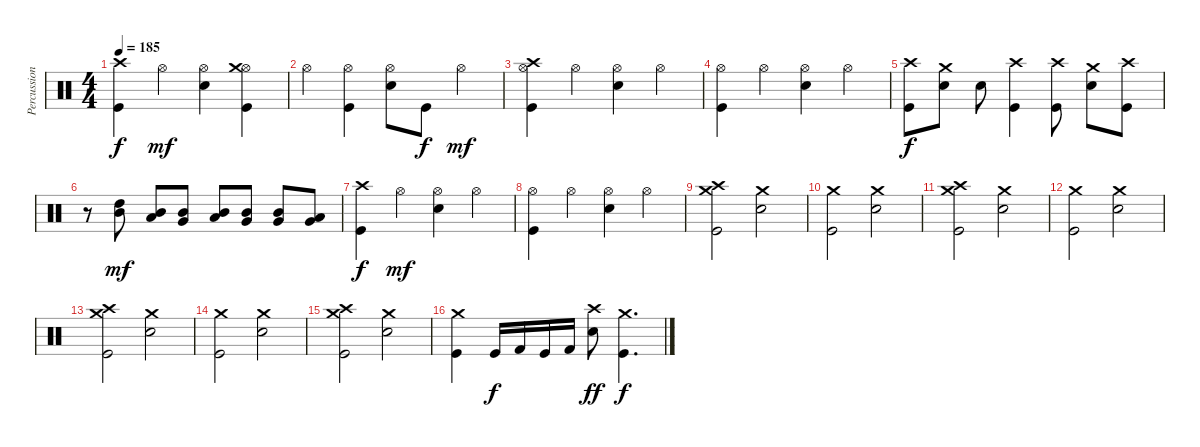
\track ("Percussions" "Percussion") {instrument percussion}
\staff {score}
\articulation defaults
\ts (4 4)
\tempo 185
\clef neutral
\ks c
("Kick (hit)" "Crash high (hit)").4{dy f} "Hi-Hat (open)".4{dy mf} ("Electric Snare (hit)" "Hi-Hat (open)").4 ("Kick (hit)" "Hi-Hat (open)" "Crash medium (hit)").4 |
"Hi-Hat (open)".4 ("Kick (hit)" "Hi-Hat (open)").4 ("Electric Snare (hit)" "Hi-Hat (open)").8 "Kick (hit)".8{dy f} "Hi-Hat (open)".4{dy mf} |
("Kick (hit)" "Hi-Hat (open)" "Crash high (hit)").4 "Hi-Hat (open)".4 ("Electric Snare (hit)" "Hi-Hat (open)").4 "Hi-Hat (open)".4 |
("Kick (hit)" "Hi-Hat (open)").4 "Hi-Hat (open)".4 ("Electric Snare (hit)" "Hi-Hat (open)").4 "Hi-Hat (open)".4 |
("Kick (hit)" "Crash high (hit)").8{dy f} ("Electric Snare (hit)" "Crash medium (hit)").8 "Electric Snare (hit)".8 ("Kick (hit)" "Crash high (hit)").4 ("Kick (hit)" "Crash high (hit)").8 ("Electric Snare (hit)" "Crash medium (hit)").8 ("Kick (hit)" "Crash high (hit)").8 |
r.8 ("Mid Tom (hit)" "High Tom (hit)").8{dy mf} ("Low Tom (hit)" "Mid Tom (hit)").8 ("Very Low Tom (hit)" "Mid Tom (hit)").8 ("Low Tom (hit)" "Mid Tom (hit)").8 ("Very Low Tom (hit)" "Mid Tom (hit)").8 ("Very Low Tom (hit)" "Mid Tom (hit)").8 ("Very Low Tom (hit)" "Low Tom (hit)").8 |
("Kick (hit)" "Crash high (hit)").4{dy f} "Hi-Hat (open)".4{dy mf} ("Electric Snare (hit)" "Hi-Hat (open)").4 "Hi-Hat (open)".4 |
("Kick (hit)" "Hi-Hat (open)").4 "Hi-Hat (open)".4 ("Electric Snare (hit)" "Hi-Hat (open)").4 "Hi-Hat (open)".4 |
("Kick (hit)" "Crash medium (hit)" "Crash high (hit)").2 ("Electric Snare (hit)" "Crash medium (hit)").2 |
("Kick (hit)" "Crash medium (hit)").2 ("Electric Snare (hit)" "Crash medium (hit)").2 |
("Kick (hit)" "Crash medium (hit)" "Crash high (hit)").2 ("Electric Snare (hit)" "Crash medium (hit)").2 |
("Kick (hit)" "Crash medium (hit)").2 ("Electric Snare (hit)" "Crash medium (hit)").2 |
("Kick (hit)" "Crash medium (hit)" "Crash high (hit)").2 ("Electric Snare (hit)" "Crash medium (hit)").2 |
("Kick (hit)" "Crash medium (hit)").2 ("Electric Snare (hit)" "Crash medium (hit)").2 |
("Kick (hit)" "Crash medium (hit)" "Crash high (hit)").2 ("Electric Snare (hit)" "Crash medium (hit)").2 |
("Kick (hit)" "Crash medium (hit)").4 "Kick (hit)".16{dy f} "Kick (hit) 2".16 "Kick (hit)".16 "Kick (hit) 2".16 ("Electric Snare (hit)" "Crash high (hit)").8{dy ff} ("Kick (hit)" "Crash medium (hit)").4{d dy f}
